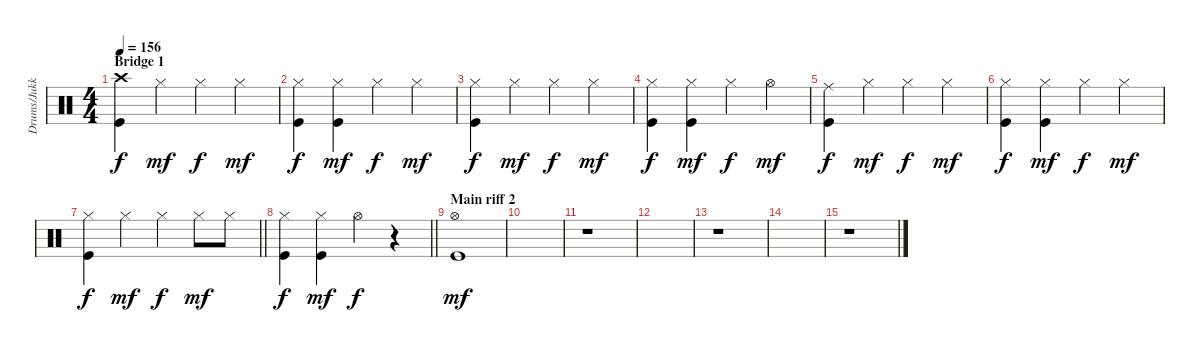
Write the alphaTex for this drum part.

\track ("Drums/Jukka" "Drums/Jukk") {instrument percussion}
\staff {score}
\articulation defaults
\ts (4 4)
\section ("" "Bridge 1")
\tempo 156
\clef neutral
\ks c
("Crash high (hit)" "Kick (hit)").4{dy f} "Hi-Hat (closed)".4{dy mf} "Hi-Hat (closed)".4{dy f} "Hi-Hat (closed)".4{dy mf} |
("Hi-Hat (closed)" "Kick (hit)").4{dy f} ("Hi-Hat (closed)" "Kick (hit)").4{dy mf} "Hi-Hat (closed)".4{dy f} "Hi-Hat (closed)".4{dy mf} |
("Hi-Hat (closed)" "Kick (hit)").4{dy f} "Hi-Hat (closed)".4{dy mf} "Hi-Hat (closed)".4{dy f} "Hi-Hat (closed)".4{dy mf} |
("Hi-Hat (closed)" "Kick (hit)").4{dy f} ("Hi-Hat (closed)" "Kick (hit)").4{dy mf} "Hi-Hat (closed)".4{dy f} "Hi-Hat (open)".4{dy mf} |
("Ride (middle)" "Kick (hit)").4{dy f} "Hi-Hat (closed)".4{dy mf} "Hi-Hat (closed)".4{dy f} "Hi-Hat (closed)".4{dy mf} |
("Hi-Hat (closed)" "Kick (hit)").4{dy f} ("Hi-Hat (closed)" "Kick (hit)").4{dy mf} "Hi-Hat (closed)".4{dy f} "Hi-Hat (closed)".4{dy mf} |
\barLineRight lightlight
("Hi-Hat (closed)" "Kick (hit)").4{dy f} "Hi-Hat (closed)".4{dy mf} "Hi-Hat (closed)".4{dy f} "Hi-Hat (closed)".8{dy mf} "Hi-Hat (closed)".8 |
\barLineRight lightlight
("Hi-Hat (closed)" "Kick (hit)").4{dy f} ("Hi-Hat (closed)" "Kick (hit)").4{dy mf} "Hi-Hat (open)".4{dy f} r.4 |
\section ("" "Main riff 2")
("Hi-Hat (open)" "Kick (hit)").1{dy mf} |
|
r.1 |
|
r.1 |
|
r.1
